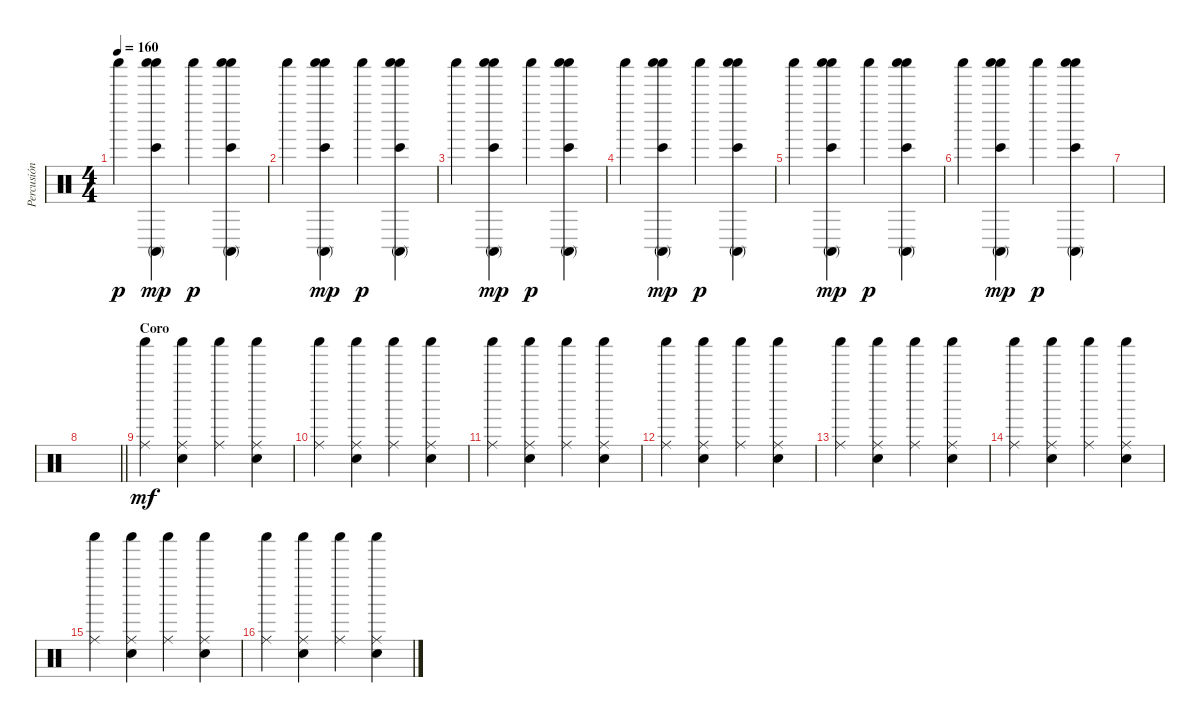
\track ("Percusión" "Percusión") {instrument percussion}
\staff {score}
\articulation defaults
\ts (4 4)
\tempo 160
\clef neutral
\ks c "Shaker (hit)".4{dy p}
("Shaker (hit)" "Conga high (mute)" "Bongo High (hit)" "Shaker (hit)").4{dy mp} "Shaker (hit)".4{dy p} ("Shaker (hit)" "Conga high (mute)" "Bongo High (hit)" "Shaker (hit)").4 |
"Shaker (hit)".4 ("Shaker (hit)" "Conga high (mute)" "Bongo High (hit)" "Shaker (hit)").4{dy mp} "Shaker (hit)".4{dy p} ("Shaker (hit)" "Conga high (mute)" "Bongo High (hit)" "Shaker (hit)").4 |
"Shaker (hit)".4 ("Shaker (hit)" "Conga high (mute)" "Bongo High (hit)" "Shaker (hit)").4{dy mp} "Shaker (hit)".4{dy p} ("Shaker (hit)" "Conga high (mute)" "Bongo High (hit)" "Shaker (hit)").4 |
"Shaker (hit)".4 ("Shaker (hit)" "Conga high (mute)" "Bongo High (hit)" "Shaker (hit)").4{dy mp} "Shaker (hit)".4{dy p} ("Shaker (hit)" "Conga high (mute)" "Bongo High (hit)" "Shaker (hit)").4 |
"Shaker (hit)".4 ("Shaker (hit)" "Conga high (mute)" "Bongo High (hit)" "Shaker (hit)").4{dy mp} "Shaker (hit)".4{dy p} ("Shaker (hit)" "Conga high (mute)" "Bongo High (hit)" "Shaker (hit)").4 |
"Shaker (hit)".4 ("Shaker (hit)" "Conga high (mute)" "Bongo High (hit)" "Shaker (hit)").4{dy mp} "Shaker (hit)".4{dy p} ("Shaker (hit)" "Conga high (mute)" "Bongo High (hit)" "Shaker (hit)").4 |
|
\barLineRight lightlight
|
\section ("" "Coro")
("Shaker (hit)" "Ride (middle)").4{dy mf} ("Shaker (hit)" "Snare (hit) 2" "Ride (middle)").4 ("Shaker (hit)" "Ride (middle)").4 ("Shaker (hit)" "Snare (hit) 2" "Ride (middle)").4 |
("Shaker (hit)" "Ride (middle)").4 ("Shaker (hit)" "Snare (hit) 2" "Ride (middle)").4 ("Shaker (hit)" "Ride (middle)").4 ("Shaker (hit)" "Snare (hit) 2" "Ride (middle)").4 |
("Shaker (hit)" "Ride (middle)").4 ("Shaker (hit)" "Snare (hit) 2" "Ride (middle)").4 ("Shaker (hit)" "Ride (middle)").4 ("Shaker (hit)" "Snare (hit) 2" "Ride (middle)").4 |
("Shaker (hit)" "Ride (middle)").4 ("Shaker (hit)" "Snare (hit) 2" "Ride (middle)").4 ("Shaker (hit)" "Ride (middle)").4 ("Shaker (hit)" "Snare (hit) 2" "Ride (middle)").4 |
("Shaker (hit)" "Ride (middle)").4 ("Shaker (hit)" "Snare (hit) 2" "Ride (middle)").4 ("Shaker (hit)" "Ride (middle)").4 ("Shaker (hit)" "Snare (hit) 2" "Ride (middle)").4 |
("Shaker (hit)" "Ride (middle)").4 ("Shaker (hit)" "Snare (hit) 2" "Ride (middle)").4 ("Shaker (hit)" "Ride (middle)").4 ("Shaker (hit)" "Snare (hit) 2" "Ride (middle)").4 |
("Shaker (hit)" "Ride (middle)").4 ("Shaker (hit)" "Snare (hit) 2" "Ride (middle)").4 ("Shaker (hit)" "Ride (middle)").4 ("Shaker (hit)" "Snare (hit) 2" "Ride (middle)").4 |
("Shaker (hit)" "Ride (middle)").4 ("Shaker (hit)" "Snare (hit) 2" "Ride (middle)").4 ("Shaker (hit)" "Ride (middle)").4 ("Shaker (hit)" "Snare (hit) 2" "Ride (middle)").4
